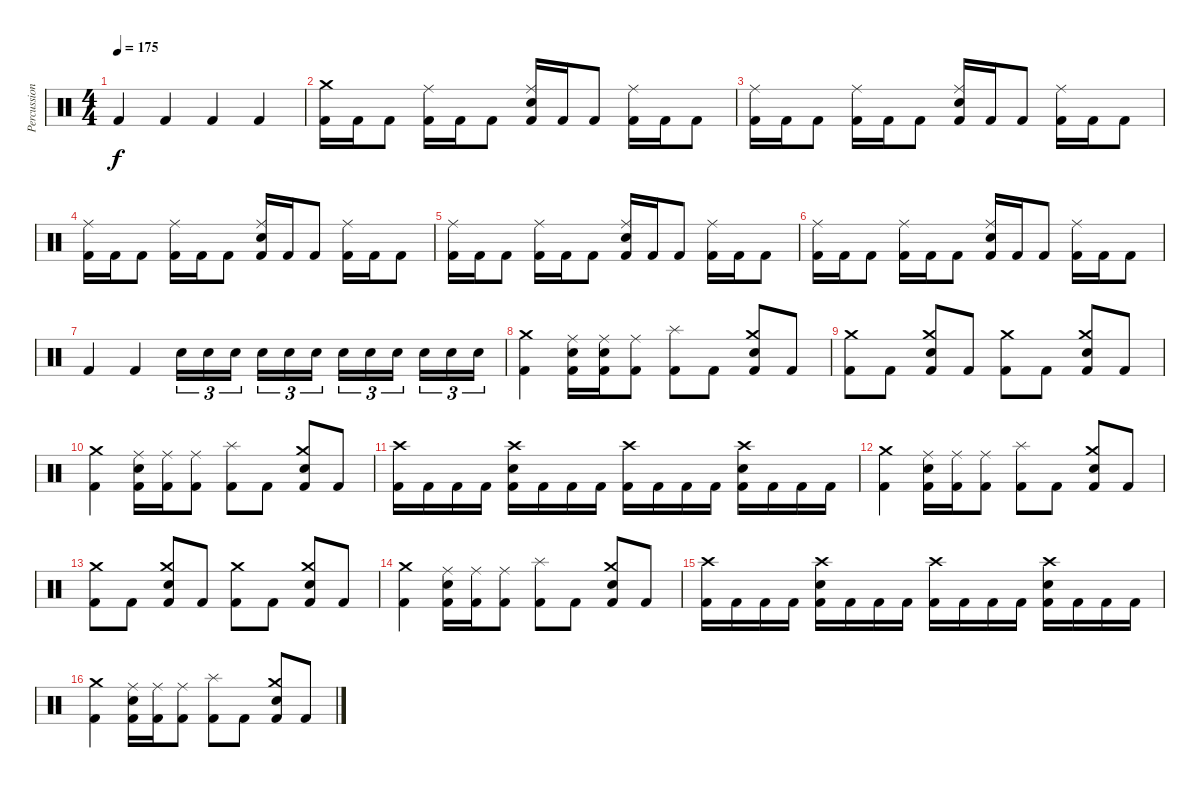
\track ("Percussion" "Percussion") {instrument percussion}
\staff {score}
\articulation defaults
\ts (4 4)
\tempo 175
\clef neutral
\ks c "Kick (hit) 2".4{dy f} "Kick (hit) 2".4 "Kick (hit) 2".4 "Kick (hit) 2".4
|
("Crash medium (hit)" "Kick (hit) 2").16 "Kick (hit) 2".16 "Kick (hit) 2".8 ("Ride (middle)" "Kick (hit) 2").16 "Kick (hit) 2".16 "Kick (hit) 2".8 ("Ride (middle)" "Electric Snare (hit)" "Kick (hit) 2").16 "Kick (hit) 2".16 "Kick (hit) 2".8 ("Ride (middle)" "Kick (hit) 2").16 "Kick (hit) 2".16 "Kick (hit) 2".8 |
("Ride (middle)" "Kick (hit) 2").16 "Kick (hit) 2".16 "Kick (hit) 2".8 ("Ride (middle)" "Kick (hit) 2").16 "Kick (hit) 2".16 "Kick (hit) 2".8 ("Ride (middle)" "Electric Snare (hit)" "Kick (hit) 2").16 "Kick (hit) 2".16 "Kick (hit) 2".8 ("Ride (middle)" "Kick (hit) 2").16 "Kick (hit) 2".16 "Kick (hit) 2".8 |
("Ride (middle)" "Kick (hit) 2").16 "Kick (hit) 2".16 "Kick (hit) 2".8 ("Ride (middle)" "Kick (hit) 2").16 "Kick (hit) 2".16 "Kick (hit) 2".8 ("Ride (middle)" "Electric Snare (hit)" "Kick (hit) 2").16 "Kick (hit) 2".16 "Kick (hit) 2".8 ("Ride (middle)" "Kick (hit) 2").16 "Kick (hit) 2".16 "Kick (hit) 2".8 |
("Ride (middle)" "Kick (hit) 2").16 "Kick (hit) 2".16 "Kick (hit) 2".8 ("Ride (middle)" "Kick (hit) 2").16 "Kick (hit) 2".16 "Kick (hit) 2".8 ("Ride (middle)" "Electric Snare (hit)" "Kick (hit) 2").16 "Kick (hit) 2".16 "Kick (hit) 2".8 ("Ride (middle)" "Kick (hit) 2").16 "Kick (hit) 2".16 "Kick (hit) 2".8 |
("Ride (middle)" "Kick (hit) 2").16 "Kick (hit) 2".16 "Kick (hit) 2".8 ("Ride (middle)" "Kick (hit) 2").16 "Kick (hit) 2".16 "Kick (hit) 2".8 ("Ride (middle)" "Electric Snare (hit)" "Kick (hit) 2").16 "Kick (hit) 2".16 "Kick (hit) 2".8 ("Ride (middle)" "Kick (hit) 2").16 "Kick (hit) 2".16 "Kick (hit) 2".8 |
"Kick (hit) 2".4 "Kick (hit) 2".4 "Electric Snare (hit)".16{tu (3 2)} "Electric Snare (hit)".16{tu (3 2)} "Electric Snare (hit)".16{tu (3 2) beam splitsecondary} "Electric Snare (hit)".16{tu (3 2)} "Electric Snare (hit)".16{tu (3 2)} "Electric Snare (hit)".16{tu (3 2)} "Electric Snare (hit)".16{tu (3 2)} "Electric Snare (hit)".16{tu (3 2)} "Electric Snare (hit)".16{tu (3 2) beam splitsecondary} "Electric Snare (hit)".16{tu (3 2)} "Electric Snare (hit)".16{tu (3 2)} "Electric Snare (hit)".16{tu (3 2)} |
("Crash medium (hit)" "Kick (hit) 2").4 ("Ride (middle)" "Electric Snare (hit)" "Kick (hit) 2").16 ("Ride (middle)" "Electric Snare (hit)" "Kick (hit) 2").16 ("Ride (middle)" "Kick (hit) 2").8 ("Splash (hit)" "Kick (hit) 2").8 "Kick (hit) 2".8 ("Crash medium (hit)" "Electric Snare (hit)" "Kick (hit) 2").8 "Kick (hit) 2".8 |
("Crash medium (hit)" "Kick (hit) 2").8 "Kick (hit) 2".8 ("Crash medium (hit)" "Electric Snare (hit)" "Kick (hit) 2").8 "Kick (hit) 2".8 ("Crash medium (hit)" "Kick (hit) 2").8 "Kick (hit) 2".8 ("Crash medium (hit)" "Electric Snare (hit)" "Kick (hit) 2").8 "Kick (hit) 2".8 |
("Crash medium (hit)" "Kick (hit) 2").4 ("Ride (middle)" "Electric Snare (hit)" "Kick (hit) 2").16 ("Ride (middle)" "Kick (hit) 2").16 ("Ride (middle)" "Kick (hit) 2").8 ("Splash (hit)" "Kick (hit) 2").8 "Kick (hit) 2".8 ("Crash medium (hit)" "Electric Snare (hit)" "Kick (hit) 2").8 "Kick (hit) 2".8 |
("Crash high (hit)" "Kick (hit) 2").16 "Kick (hit) 2".16 "Kick (hit) 2".16 "Kick (hit) 2".16 ("Crash high (hit)" "Electric Snare (hit)" "Kick (hit) 2").16 "Kick (hit) 2".16 "Kick (hit) 2".16 "Kick (hit) 2".16 ("Crash high (hit)" "Kick (hit) 2").16 "Kick (hit) 2".16 "Kick (hit) 2".16 "Kick (hit) 2".16 ("Crash high (hit)" "Electric Snare (hit)" "Kick (hit) 2").16 "Kick (hit) 2".16 "Kick (hit) 2".16 "Kick (hit) 2".16 |
("Crash medium (hit)" "Kick (hit) 2").4 ("Ride (middle)" "Electric Snare (hit)" "Kick (hit) 2").16 ("Ride (middle)" "Kick (hit) 2").16 ("Ride (middle)" "Kick (hit) 2").8 ("Splash (hit)" "Kick (hit) 2").8 "Kick (hit) 2".8 ("Crash medium (hit)" "Electric Snare (hit)" "Kick (hit) 2").8 "Kick (hit) 2".8 |
("Crash medium (hit)" "Kick (hit) 2").8 "Kick (hit) 2".8 ("Crash medium (hit)" "Electric Snare (hit)" "Kick (hit) 2").8 "Kick (hit) 2".8 ("Crash medium (hit)" "Kick (hit) 2").8 "Kick (hit) 2".8 ("Crash medium (hit)" "Electric Snare (hit)" "Kick (hit) 2").8 "Kick (hit) 2".8 |
("Crash medium (hit)" "Kick (hit) 2").4 ("Ride (middle)" "Electric Snare (hit)" "Kick (hit) 2").16 ("Ride (middle)" "Kick (hit) 2").16 ("Ride (middle)" "Kick (hit) 2").8 ("Splash (hit)" "Kick (hit) 2").8 "Kick (hit) 2".8 ("Crash medium (hit)" "Electric Snare (hit)" "Kick (hit) 2").8 "Kick (hit) 2".8 |
("Crash high (hit)" "Kick (hit) 2").16 "Kick (hit) 2".16 "Kick (hit) 2".16 "Kick (hit) 2".16 ("Crash high (hit)" "Electric Snare (hit)" "Kick (hit) 2").16 "Kick (hit) 2".16 "Kick (hit) 2".16 "Kick (hit) 2".16 ("Crash high (hit)" "Kick (hit) 2").16 "Kick (hit) 2".16 "Kick (hit) 2".16 "Kick (hit) 2".16 ("Crash high (hit)" "Electric Snare (hit)" "Kick (hit) 2").16 "Kick (hit) 2".16 "Kick (hit) 2".16 "Kick (hit) 2".16 |
("Crash medium (hit)" "Kick (hit) 2").4 ("Ride (middle)" "Electric Snare (hit)" "Kick (hit) 2").16 ("Ride (middle)" "Kick (hit) 2").16 ("Ride (middle)" "Kick (hit) 2").8 ("Splash (hit)" "Kick (hit) 2").8 "Kick (hit) 2".8 ("Crash medium (hit)" "Electric Snare (hit)" "Kick (hit) 2").8 "Kick (hit) 2".8
